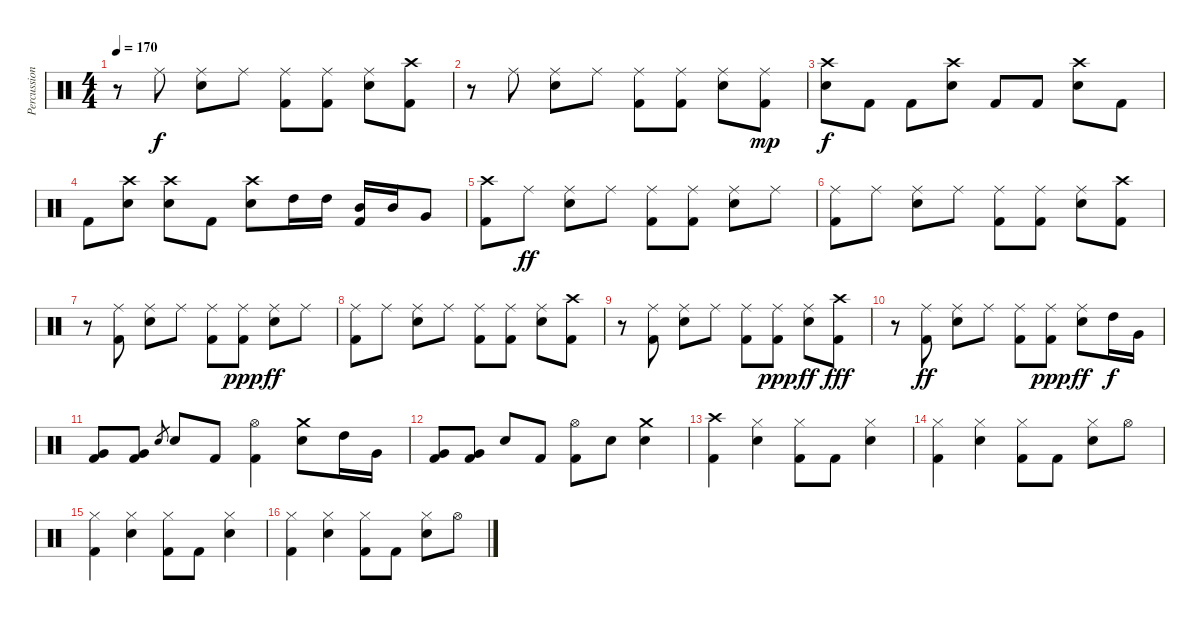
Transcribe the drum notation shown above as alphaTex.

\track ("Percussion" "Percussion") {instrument percussion}
\staff {score}
\articulation defaults
\ts (4 4)
\tempo 170
\clef neutral
\ks c
r.8{dy f} "Ride (middle)".8 ("Ride (middle)" "Snare (hit) 2").8 "Ride (middle)".8 ("Ride (middle)" "Kick (hit) 2").8 ("Ride (middle)" "Kick (hit) 2").8 ("Ride (middle)" "Snare (hit) 2").8 ("Crash high (hit)" "Kick (hit) 2").8 |
r.8 "Ride (middle)".8 ("Ride (middle)" "Snare (hit) 2").8 "Ride (middle)".8 ("Ride (middle)" "Kick (hit) 2").8 ("Ride (middle)" "Kick (hit) 2").8 ("Ride (middle)" "Snare (hit) 2").8 ("Ride (middle)" "Kick (hit) 2").8{dy mp} |
("Crash high (hit)" "Snare (hit) 2").8{dy f} "Kick (hit) 2".8 "Kick (hit) 2".8 ("Crash high (hit)" "Snare (hit) 2").8 "Kick (hit) 2".8 "Kick (hit) 2".8 ("Crash high (hit)" "Snare (hit) 2").8 "Kick (hit) 2".8 |
"Kick (hit) 2".8 ("Crash high (hit)" "Snare (hit) 2").8 ("Crash high (hit)" "Snare (hit) 2").8 "Kick (hit) 2".8 ("Crash high (hit)" "Snare (hit) 2").8 "High Tom (hit)".16 "High Tom (hit)".16 ("Mid Tom (hit)" "Kick (hit) 2").16 "Mid Tom (hit)".16 "Very Low Tom (hit)".8 |
("Crash high (hit)" "Kick (hit) 2").8 "Ride (middle)".8{dy ff} ("Ride (middle)" "Snare (hit) 2").8 "Ride (middle)".8 ("Ride (middle)" "Kick (hit) 2").8 ("Ride (middle)" "Kick (hit) 2").8 ("Ride (middle)" "Snare (hit) 2").8 "Ride (middle)".8 |
("Ride (middle)" "Kick (hit) 2").8 "Ride (middle)".8 ("Ride (middle)" "Snare (hit) 2").8 "Ride (middle)".8 ("Ride (middle)" "Kick (hit) 2").8 ("Ride (middle)" "Kick (hit) 2").8 ("Ride (middle)" "Snare (hit) 2").8 ("Crash high (hit)" "Kick (hit) 2").8 |
r.8 ("Ride (middle)" "Kick (hit) 2").8 ("Ride (middle)" "Snare (hit) 2").8 "Ride (middle)".8 ("Ride (middle)" "Kick (hit) 2").8 ("Ride (middle)" "Kick (hit) 2").8{dy ppp} ("Ride (middle)" "Snare (hit) 2").8{dy ff} "Ride (middle)".8 |
("Ride (middle)" "Kick (hit) 2").8 "Ride (middle)".8 ("Ride (middle)" "Snare (hit) 2").8 "Ride (middle)".8 ("Ride (middle)" "Kick (hit) 2").8 ("Ride (middle)" "Kick (hit) 2").8 ("Ride (middle)" "Snare (hit) 2").8 ("Crash high (hit)" "Kick (hit) 2").8 |
r.8 ("Ride (middle)" "Kick (hit) 2").8 ("Ride (middle)" "Snare (hit) 2").8 "Ride (middle)".8 ("Ride (middle)" "Kick (hit) 2").8 ("Ride (middle)" "Kick (hit) 2").8{dy ppp} ("Ride (middle)" "Snare (hit) 2").8{dy ff} ("Crash high (hit)" "Kick (hit) 2").8{dy fff} |
r.8 ("Ride (middle)" "Kick (hit) 2").8{dy ff} ("Ride (middle)" "Snare (hit) 2").8 "Ride (middle)".8 ("Ride (middle)" "Kick (hit) 2").8 ("Ride (middle)" "Kick (hit) 2").8{dy ppp} ("Ride (middle)" "Snare (hit) 2").8{dy ff} "High Tom (hit)".16{dy f} "Very Low Tom (hit)".16 |
("Very Low Tom (hit)" "Kick (hit) 2").8 ("Very Low Tom (hit)" "Kick (hit) 2").8 "Snare (hit) 2".8{gr} "Snare (hit) 2".8 "Kick (hit) 2".8 ("Kick (hit) 2" "Hi-Hat (open)").4 ("Crash medium (hit)" "Snare (hit) 2").8 "High Tom (hit)".16 "Very Low Tom (hit)".16 |
("Very Low Tom (hit)" "Kick (hit) 2").8 ("Very Low Tom (hit)" "Kick (hit) 2").8 "Snare (hit) 2".8 "Kick (hit) 2".8 ("Kick (hit) 2" "Hi-Hat (open)").8 "Snare (hit) 2".8 ("Crash medium (hit)" "Snare (hit) 2").4 |
("Crash high (hit)" "Kick (hit) 2").4 ("Hi-Hat (closed)" "Snare (hit) 2").4 ("Hi-Hat (closed)" "Kick (hit) 2").8 "Kick (hit) 2".8 ("Hi-Hat (closed)" "Snare (hit) 2").4 |
("Hi-Hat (closed)" "Kick (hit) 2").4 ("Hi-Hat (closed)" "Snare (hit) 2").4 ("Hi-Hat (closed)" "Kick (hit) 2").8 "Kick (hit) 2".8 ("Hi-Hat (closed)" "Snare (hit) 2").8 "Hi-Hat (open)".8 |
("Hi-Hat (closed)" "Kick (hit) 2").4 ("Hi-Hat (closed)" "Snare (hit) 2").4 ("Hi-Hat (closed)" "Kick (hit) 2").8 "Kick (hit) 2".8 ("Hi-Hat (closed)" "Snare (hit) 2").4 |
("Hi-Hat (closed)" "Kick (hit) 2").4 ("Hi-Hat (closed)" "Snare (hit) 2").4 ("Hi-Hat (closed)" "Kick (hit) 2").8 "Kick (hit) 2".8 ("Hi-Hat (closed)" "Snare (hit) 2").8 "Hi-Hat (open)".8
